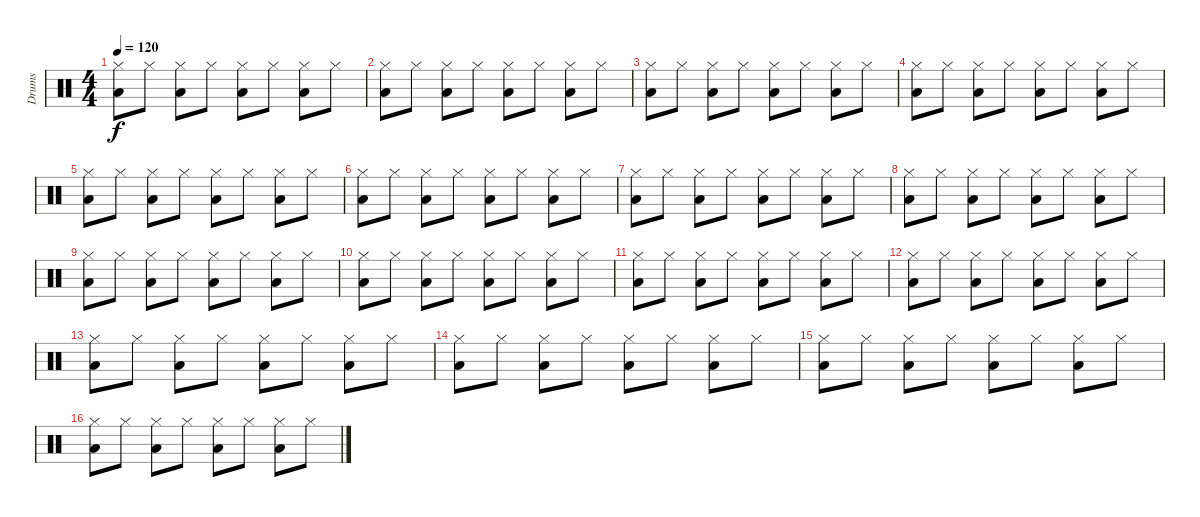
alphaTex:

\track ("Drums" "Drums") {instrument percussion}
\staff {score}
\articulation defaults
\ts (4 4)
\tempo 120
\clef neutral
\ks c
("Hi-Hat (closed)" "Low Floor Tom (hit)").8{dy f} "Hi-Hat (closed)".8 ("Hi-Hat (closed)" "Low Floor Tom (hit)").8 "Hi-Hat (closed)".8 ("Hi-Hat (closed)" "Low Floor Tom (hit)").8 "Hi-Hat (closed)".8 ("Hi-Hat (closed)" "Low Floor Tom (hit)").8 "Hi-Hat (closed)".8 |
("Hi-Hat (closed)" "Low Floor Tom (hit)").8 "Hi-Hat (closed)".8 ("Hi-Hat (closed)" "Low Floor Tom (hit)").8 "Hi-Hat (closed)".8 ("Hi-Hat (closed)" "Low Floor Tom (hit)").8 "Hi-Hat (closed)".8 ("Hi-Hat (closed)" "Low Floor Tom (hit)").8 "Hi-Hat (closed)".8 |
("Hi-Hat (closed)" "Low Floor Tom (hit)").8 "Hi-Hat (closed)".8 ("Hi-Hat (closed)" "Low Floor Tom (hit)").8 "Hi-Hat (closed)".8 ("Hi-Hat (closed)" "Low Floor Tom (hit)").8 "Hi-Hat (closed)".8 ("Hi-Hat (closed)" "Low Floor Tom (hit)").8 "Hi-Hat (closed)".8 |
("Hi-Hat (closed)" "Low Floor Tom (hit)").8 "Hi-Hat (closed)".8 ("Hi-Hat (closed)" "Low Floor Tom (hit)").8 "Hi-Hat (closed)".8 ("Hi-Hat (closed)" "Low Floor Tom (hit)").8 "Hi-Hat (closed)".8 ("Hi-Hat (closed)" "Low Floor Tom (hit)").8 "Hi-Hat (closed)".8 |
("Hi-Hat (closed)" "Low Floor Tom (hit)").8 "Hi-Hat (closed)".8 ("Hi-Hat (closed)" "Low Floor Tom (hit)").8 "Hi-Hat (closed)".8 ("Hi-Hat (closed)" "Low Floor Tom (hit)").8 "Hi-Hat (closed)".8 ("Hi-Hat (closed)" "Low Floor Tom (hit)").8 "Hi-Hat (closed)".8 |
("Hi-Hat (closed)" "Low Floor Tom (hit)").8 "Hi-Hat (closed)".8 ("Hi-Hat (closed)" "Low Floor Tom (hit)").8 "Hi-Hat (closed)".8 ("Hi-Hat (closed)" "Low Floor Tom (hit)").8 "Hi-Hat (closed)".8 ("Hi-Hat (closed)" "Low Floor Tom (hit)").8 "Hi-Hat (closed)".8 |
("Hi-Hat (closed)" "Low Floor Tom (hit)").8 "Hi-Hat (closed)".8 ("Hi-Hat (closed)" "Low Floor Tom (hit)").8 "Hi-Hat (closed)".8 ("Hi-Hat (closed)" "Low Floor Tom (hit)").8 "Hi-Hat (closed)".8 ("Hi-Hat (closed)" "Low Floor Tom (hit)").8 "Hi-Hat (closed)".8 |
("Hi-Hat (closed)" "Low Floor Tom (hit)").8 "Hi-Hat (closed)".8 ("Hi-Hat (closed)" "Low Floor Tom (hit)").8 "Hi-Hat (closed)".8 ("Hi-Hat (closed)" "Low Floor Tom (hit)").8 "Hi-Hat (closed)".8 ("Hi-Hat (closed)" "Low Floor Tom (hit)").8 "Hi-Hat (closed)".8 |
("Hi-Hat (closed)" "Low Floor Tom (hit)").8 "Hi-Hat (closed)".8 ("Hi-Hat (closed)" "Low Floor Tom (hit)").8 "Hi-Hat (closed)".8 ("Hi-Hat (closed)" "Low Floor Tom (hit)").8 "Hi-Hat (closed)".8 ("Hi-Hat (closed)" "Low Floor Tom (hit)").8 "Hi-Hat (closed)".8 |
("Hi-Hat (closed)" "Low Floor Tom (hit)").8 "Hi-Hat (closed)".8 ("Hi-Hat (closed)" "Low Floor Tom (hit)").8 "Hi-Hat (closed)".8 ("Hi-Hat (closed)" "Low Floor Tom (hit)").8 "Hi-Hat (closed)".8 ("Hi-Hat (closed)" "Low Floor Tom (hit)").8 "Hi-Hat (closed)".8 |
("Hi-Hat (closed)" "Low Floor Tom (hit)").8 "Hi-Hat (closed)".8 ("Hi-Hat (closed)" "Low Floor Tom (hit)").8 "Hi-Hat (closed)".8 ("Hi-Hat (closed)" "Low Floor Tom (hit)").8 "Hi-Hat (closed)".8 ("Hi-Hat (closed)" "Low Floor Tom (hit)").8 "Hi-Hat (closed)".8 |
("Hi-Hat (closed)" "Low Floor Tom (hit)").8 "Hi-Hat (closed)".8 ("Hi-Hat (closed)" "Low Floor Tom (hit)").8 "Hi-Hat (closed)".8 ("Hi-Hat (closed)" "Low Floor Tom (hit)").8 "Hi-Hat (closed)".8 ("Hi-Hat (closed)" "Low Floor Tom (hit)").8 "Hi-Hat (closed)".8 |
("Hi-Hat (closed)" "Low Floor Tom (hit)").8 "Hi-Hat (closed)".8 ("Hi-Hat (closed)" "Low Floor Tom (hit)").8 "Hi-Hat (closed)".8 ("Hi-Hat (closed)" "Low Floor Tom (hit)").8 "Hi-Hat (closed)".8 ("Hi-Hat (closed)" "Low Floor Tom (hit)").8 "Hi-Hat (closed)".8 |
("Hi-Hat (closed)" "Low Floor Tom (hit)").8 "Hi-Hat (closed)".8 ("Hi-Hat (closed)" "Low Floor Tom (hit)").8 "Hi-Hat (closed)".8 ("Hi-Hat (closed)" "Low Floor Tom (hit)").8 "Hi-Hat (closed)".8 ("Hi-Hat (closed)" "Low Floor Tom (hit)").8 "Hi-Hat (closed)".8 |
("Hi-Hat (closed)" "Low Floor Tom (hit)").8 "Hi-Hat (closed)".8 ("Hi-Hat (closed)" "Low Floor Tom (hit)").8 "Hi-Hat (closed)".8 ("Hi-Hat (closed)" "Low Floor Tom (hit)").8 "Hi-Hat (closed)".8 ("Hi-Hat (closed)" "Low Floor Tom (hit)").8 "Hi-Hat (closed)".8 |
("Hi-Hat (closed)" "Low Floor Tom (hit)").8 "Hi-Hat (closed)".8 ("Hi-Hat (closed)" "Low Floor Tom (hit)").8 "Hi-Hat (closed)".8 ("Hi-Hat (closed)" "Low Floor Tom (hit)").8 "Hi-Hat (closed)".8 ("Hi-Hat (closed)" "Low Floor Tom (hit)").8 "Hi-Hat (closed)".8
